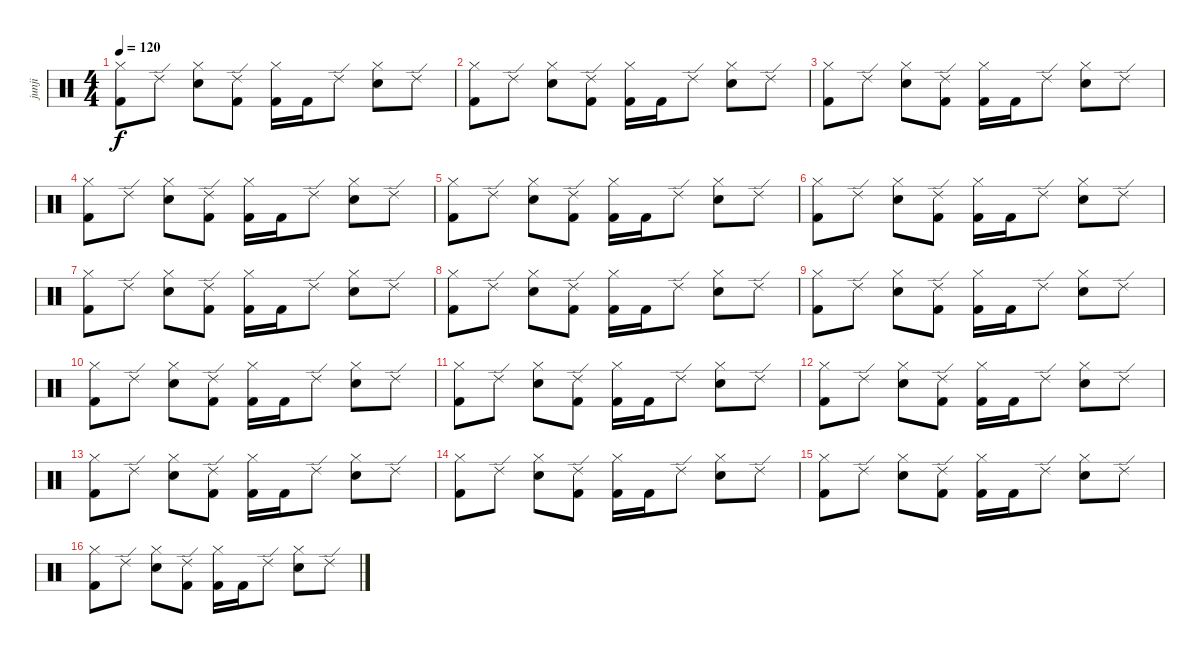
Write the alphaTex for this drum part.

\track ("junji" "junji") {instrument percussion}
\staff {score}
\articulation defaults
\ts (4 4)
\tempo 120
\clef neutral
\ks c
("Hi-Hat (closed)" "Kick (hit) 2").8{dy f} "Ride (edge) 2".8 ("Hi-Hat (closed)" "Snare (hit) 2").8 ("Ride (edge) 2" "Kick (hit) 2").8 ("Hi-Hat (closed)" "Kick (hit) 2"{x}).16 "Kick (hit) 2".16 "Ride (edge) 2".8 ("Hi-Hat (closed)" "Snare (hit) 2").8 "Ride (edge) 2".8 |
("Hi-Hat (closed)" "Kick (hit) 2").8 "Ride (edge) 2".8 ("Hi-Hat (closed)" "Snare (hit) 2").8 ("Ride (edge) 2" "Kick (hit) 2").8 ("Hi-Hat (closed)" "Kick (hit) 2"{x}).16 "Kick (hit) 2".16 "Ride (edge) 2".8 ("Hi-Hat (closed)" "Snare (hit) 2").8 "Ride (edge) 2".8 |
("Hi-Hat (closed)" "Kick (hit) 2").8 "Ride (edge) 2".8 ("Hi-Hat (closed)" "Snare (hit) 2").8 ("Ride (edge) 2" "Kick (hit) 2").8 ("Hi-Hat (closed)" "Kick (hit) 2"{x}).16 "Kick (hit) 2".16 "Ride (edge) 2".8 ("Hi-Hat (closed)" "Snare (hit) 2").8 "Ride (edge) 2".8 |
("Hi-Hat (closed)" "Kick (hit) 2").8 "Ride (edge) 2".8 ("Hi-Hat (closed)" "Snare (hit) 2").8 ("Ride (edge) 2" "Kick (hit) 2").8 ("Hi-Hat (closed)" "Kick (hit) 2"{x}).16 "Kick (hit) 2".16 "Ride (edge) 2".8 ("Hi-Hat (closed)" "Snare (hit) 2").8 "Ride (edge) 2".8 |
("Hi-Hat (closed)" "Kick (hit) 2").8 "Ride (edge) 2".8 ("Hi-Hat (closed)" "Snare (hit) 2").8 ("Ride (edge) 2" "Kick (hit) 2").8 ("Hi-Hat (closed)" "Kick (hit) 2"{x}).16 "Kick (hit) 2".16 "Ride (edge) 2".8 ("Hi-Hat (closed)" "Snare (hit) 2").8 "Ride (edge) 2".8 |
("Hi-Hat (closed)" "Kick (hit) 2").8 "Ride (edge) 2".8 ("Hi-Hat (closed)" "Snare (hit) 2").8 ("Ride (edge) 2" "Kick (hit) 2").8 ("Hi-Hat (closed)" "Kick (hit) 2"{x}).16 "Kick (hit) 2".16 "Ride (edge) 2".8 ("Hi-Hat (closed)" "Snare (hit) 2").8 "Ride (edge) 2".8 |
("Hi-Hat (closed)" "Kick (hit) 2").8 "Ride (edge) 2".8 ("Hi-Hat (closed)" "Snare (hit) 2").8 ("Ride (edge) 2" "Kick (hit) 2").8 ("Hi-Hat (closed)" "Kick (hit) 2"{x}).16 "Kick (hit) 2".16 "Ride (edge) 2".8 ("Hi-Hat (closed)" "Snare (hit) 2").8 "Ride (edge) 2".8 |
("Hi-Hat (closed)" "Kick (hit) 2").8 "Ride (edge) 2".8 ("Hi-Hat (closed)" "Snare (hit) 2").8 ("Ride (edge) 2" "Kick (hit) 2").8 ("Hi-Hat (closed)" "Kick (hit) 2"{x}).16 "Kick (hit) 2".16 "Ride (edge) 2".8 ("Hi-Hat (closed)" "Snare (hit) 2").8 "Ride (edge) 2".8 |
("Hi-Hat (closed)" "Kick (hit) 2").8 "Ride (edge) 2".8 ("Hi-Hat (closed)" "Snare (hit) 2").8 ("Ride (edge) 2" "Kick (hit) 2").8 ("Hi-Hat (closed)" "Kick (hit) 2"{x}).16 "Kick (hit) 2".16 "Ride (edge) 2".8 ("Hi-Hat (closed)" "Snare (hit) 2").8 "Ride (edge) 2".8 |
("Hi-Hat (closed)" "Kick (hit) 2").8 "Ride (edge) 2".8 ("Hi-Hat (closed)" "Snare (hit) 2").8 ("Ride (edge) 2" "Kick (hit) 2").8 ("Hi-Hat (closed)" "Kick (hit) 2"{x}).16 "Kick (hit) 2".16 "Ride (edge) 2".8 ("Hi-Hat (closed)" "Snare (hit) 2").8 "Ride (edge) 2".8 |
("Hi-Hat (closed)" "Kick (hit) 2").8 "Ride (edge) 2".8 ("Hi-Hat (closed)" "Snare (hit) 2").8 ("Ride (edge) 2" "Kick (hit) 2").8 ("Hi-Hat (closed)" "Kick (hit) 2"{x}).16 "Kick (hit) 2".16 "Ride (edge) 2".8 ("Hi-Hat (closed)" "Snare (hit) 2").8 "Ride (edge) 2".8 |
("Hi-Hat (closed)" "Kick (hit) 2").8 "Ride (edge) 2".8 ("Hi-Hat (closed)" "Snare (hit) 2").8 ("Ride (edge) 2" "Kick (hit) 2").8 ("Hi-Hat (closed)" "Kick (hit) 2"{x}).16 "Kick (hit) 2".16 "Ride (edge) 2".8 ("Hi-Hat (closed)" "Snare (hit) 2").8 "Ride (edge) 2".8 |
("Hi-Hat (closed)" "Kick (hit) 2").8 "Ride (edge) 2".8 ("Hi-Hat (closed)" "Snare (hit) 2").8 ("Ride (edge) 2" "Kick (hit) 2").8 ("Hi-Hat (closed)" "Kick (hit) 2"{x}).16 "Kick (hit) 2".16 "Ride (edge) 2".8 ("Hi-Hat (closed)" "Snare (hit) 2").8 "Ride (edge) 2".8 |
("Hi-Hat (closed)" "Kick (hit) 2").8 "Ride (edge) 2".8 ("Hi-Hat (closed)" "Snare (hit) 2").8 ("Ride (edge) 2" "Kick (hit) 2").8 ("Hi-Hat (closed)" "Kick (hit) 2"{x}).16 "Kick (hit) 2".16 "Ride (edge) 2".8 ("Hi-Hat (closed)" "Snare (hit) 2").8 "Ride (edge) 2".8 |
("Hi-Hat (closed)" "Kick (hit) 2").8 "Ride (edge) 2".8 ("Hi-Hat (closed)" "Snare (hit) 2").8 ("Ride (edge) 2" "Kick (hit) 2").8 ("Hi-Hat (closed)" "Kick (hit) 2"{x}).16 "Kick (hit) 2".16 "Ride (edge) 2".8 ("Hi-Hat (closed)" "Snare (hit) 2").8 "Ride (edge) 2".8 |
("Hi-Hat (closed)" "Kick (hit) 2").8 "Ride (edge) 2".8 ("Hi-Hat (closed)" "Snare (hit) 2").8 ("Ride (edge) 2" "Kick (hit) 2").8 ("Hi-Hat (closed)" "Kick (hit) 2"{x}).16 "Kick (hit) 2".16 "Ride (edge) 2".8 ("Hi-Hat (closed)" "Snare (hit) 2").8 "Ride (edge) 2".8
